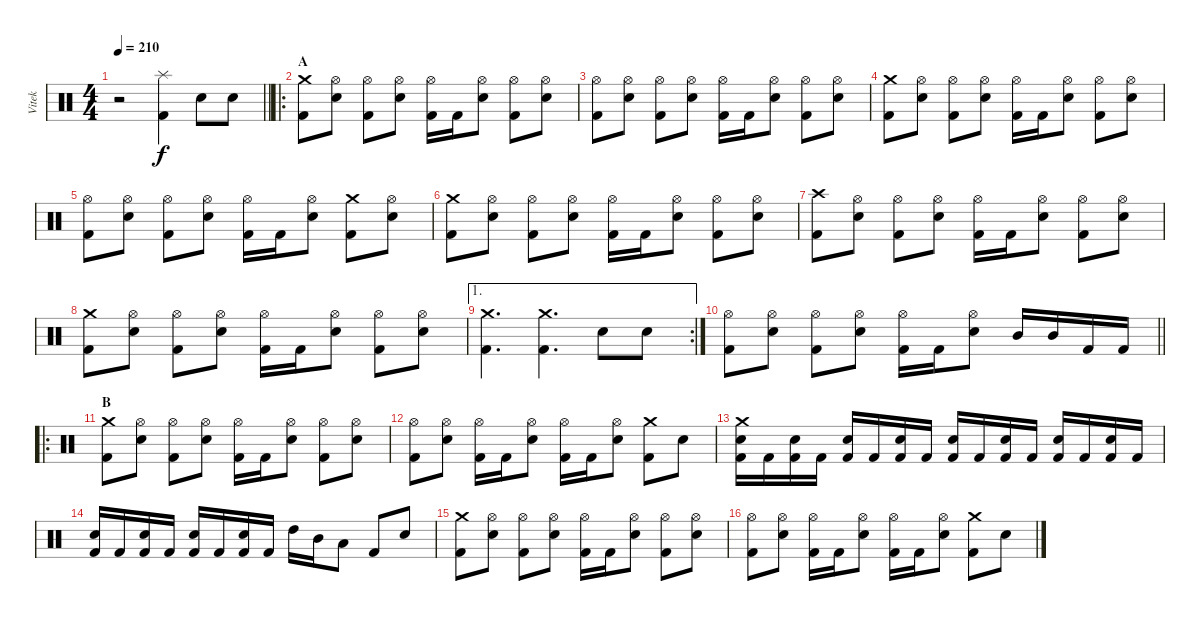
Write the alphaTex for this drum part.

\track ("Vitek" "Vitek") {instrument percussion}
\staff {score}
\articulation defaults
\ts (4 4)
\tempo 210
\clef neutral
\barLineRight lightlight
\ks c
r.2{dy f} ("Splash (hit)" "Kick (hit) 2").4 "Electric Snare (hit)".8 "Electric Snare (hit)".8 |
\ro
\section ("" "A")
("Crash medium (hit)" "Kick (hit) 2").8 ("Hi-Hat (open)" "Electric Snare (hit)").8 ("Hi-Hat (open)" "Kick (hit) 2").8 ("Hi-Hat (open)" "Electric Snare (hit)").8 ("Hi-Hat (open)" "Kick (hit) 2").16 "Kick (hit) 2".16 ("Hi-Hat (open)" "Electric Snare (hit)").8 ("Hi-Hat (open)" "Kick (hit) 2").8 ("Hi-Hat (open)" "Electric Snare (hit)").8 |
("Hi-Hat (open)" "Kick (hit) 2").8 ("Hi-Hat (open)" "Electric Snare (hit)").8 ("Hi-Hat (open)" "Kick (hit) 2").8 ("Hi-Hat (open)" "Electric Snare (hit)").8 ("Hi-Hat (open)" "Kick (hit) 2").16 "Kick (hit) 2".16 ("Hi-Hat (open)" "Electric Snare (hit)").8 ("Hi-Hat (open)" "Kick (hit) 2").8 ("Hi-Hat (open)" "Electric Snare (hit)").8 |
("Crash medium (hit)" "Kick (hit) 2").8 ("Hi-Hat (open)" "Electric Snare (hit)").8 ("Hi-Hat (open)" "Kick (hit) 2").8 ("Hi-Hat (open)" "Electric Snare (hit)").8 ("Hi-Hat (open)" "Kick (hit) 2").16 "Kick (hit) 2".16 ("Hi-Hat (open)" "Electric Snare (hit)").8 ("Hi-Hat (open)" "Kick (hit) 2").8 ("Hi-Hat (open)" "Electric Snare (hit)").8 |
("Hi-Hat (open)" "Kick (hit) 2").8 ("Hi-Hat (open)" "Electric Snare (hit)").8 ("Hi-Hat (open)" "Kick (hit) 2").8 ("Hi-Hat (open)" "Electric Snare (hit)").8 ("Hi-Hat (open)" "Kick (hit) 2").16 "Kick (hit) 2".16 ("Hi-Hat (open)" "Electric Snare (hit)").8 ("Crash medium (hit)" "Kick (hit) 2").8 ("Hi-Hat (open)" "Electric Snare (hit)").8 |
("Crash medium (hit)" "Kick (hit) 2").8 ("Hi-Hat (open)" "Electric Snare (hit)").8 ("Hi-Hat (open)" "Kick (hit) 2").8 ("Hi-Hat (open)" "Electric Snare (hit)").8 ("Hi-Hat (open)" "Kick (hit) 2").16 "Kick (hit) 2".16 ("Hi-Hat (open)" "Electric Snare (hit)").8 ("Hi-Hat (open)" "Kick (hit) 2").8 ("Hi-Hat (open)" "Electric Snare (hit)").8 |
("Crash high (hit)" "Kick (hit) 2").8 ("Hi-Hat (open)" "Electric Snare (hit)").8 ("Hi-Hat (open)" "Kick (hit) 2").8 ("Hi-Hat (open)" "Electric Snare (hit)").8 ("Hi-Hat (open)" "Kick (hit) 2").16 "Kick (hit) 2".16 ("Hi-Hat (open)" "Electric Snare (hit)").8 ("Hi-Hat (open)" "Kick (hit) 2").8 ("Hi-Hat (open)" "Electric Snare (hit)").8 |
("Crash medium (hit)" "Kick (hit) 2").8 ("Hi-Hat (open)" "Electric Snare (hit)").8 ("Hi-Hat (open)" "Kick (hit) 2").8 ("Hi-Hat (open)" "Electric Snare (hit)").8 ("Hi-Hat (open)" "Kick (hit) 2").16 "Kick (hit) 2".16 ("Hi-Hat (open)" "Electric Snare (hit)").8 ("Hi-Hat (open)" "Kick (hit) 2").8 ("Hi-Hat (open)" "Electric Snare (hit)").8 |
\ae 1
\rc 2
("Crash medium (hit)" "Kick (hit) 2").4{d} ("Crash medium (hit)" "Kick (hit) 2").4{d} "Electric Snare (hit)".8 "Electric Snare (hit)".8 |
\barLineRight lightlight
("Hi-Hat (open)" "Kick (hit) 2").8 ("Hi-Hat (open)" "Electric Snare (hit)").8 ("Hi-Hat (open)" "Kick (hit) 2").8 ("Hi-Hat (open)" "Electric Snare (hit)").8 ("Hi-Hat (open)" "Kick (hit) 2").16 "Kick (hit) 2".16 ("Hi-Hat (open)" "Electric Snare (hit)").8 "Mid Tom (hit)".16 "Mid Tom (hit)".16 "Kick (hit) 2".16 "Kick (hit) 2".16 |
\ro
\section ("" "B")
("Crash medium (hit)" "Kick (hit) 2").8 ("Hi-Hat (open)" "Electric Snare (hit)").8 ("Hi-Hat (open)" "Kick (hit) 2").8 ("Hi-Hat (open)" "Electric Snare (hit)").8 ("Hi-Hat (open)" "Kick (hit) 2").16 "Kick (hit) 2".16 ("Hi-Hat (open)" "Electric Snare (hit)").8 ("Hi-Hat (open)" "Kick (hit) 2").8 ("Hi-Hat (open)" "Electric Snare (hit)").8 |
("Hi-Hat (open)" "Kick (hit) 2").8 ("Hi-Hat (open)" "Electric Snare (hit)").8 ("Hi-Hat (open)" "Kick (hit) 2").16 "Kick (hit) 2".16 ("Hi-Hat (open)" "Electric Snare (hit)").8 ("Hi-Hat (open)" "Kick (hit) 2").16 "Kick (hit) 2".16 ("Hi-Hat (open)" "Electric Snare (hit)").8 ("Crash medium (hit)" "Kick (hit) 2").8 "Electric Snare (hit)".8 |
("Crash medium (hit)" "Electric Snare (hit)" "Kick (hit) 2").16 "Kick (hit) 2".16 ("Electric Snare (hit)" "Kick (hit) 2").16 "Kick (hit) 2".16 ("Electric Snare (hit)" "Kick (hit) 2").16 "Kick (hit) 2".16 ("Electric Snare (hit)" "Kick (hit) 2").16 "Kick (hit) 2".16 ("Electric Snare (hit)" "Kick (hit) 2").16 "Kick (hit) 2".16 ("Electric Snare (hit)" "Kick (hit) 2").16 "Kick (hit) 2".16 ("Electric Snare (hit)" "Kick (hit) 2").16 "Kick (hit) 2".16 ("Electric Snare (hit)" "Kick (hit) 2").16 "Kick (hit) 2".16 |
("Electric Snare (hit)" "Kick (hit) 2").16 "Kick (hit) 2".16 ("Electric Snare (hit)" "Kick (hit) 2").16 "Kick (hit) 2".16 ("Electric Snare (hit)" "Kick (hit) 2").16 "Kick (hit) 2".16 ("Electric Snare (hit)" "Kick (hit) 2").16 "Kick (hit) 2".16 "High Tom (hit)".16 "Mid Tom (hit)".16 "Low Tom (hit)".8 "Kick (hit) 2".8 "Electric Snare (hit)".8 |
("Crash medium (hit)" "Kick (hit) 2").8 ("Hi-Hat (open)" "Electric Snare (hit)").8 ("Hi-Hat (open)" "Kick (hit) 2").8 ("Hi-Hat (open)" "Electric Snare (hit)").8 ("Hi-Hat (open)" "Kick (hit) 2").16 "Kick (hit) 2".16 ("Hi-Hat (open)" "Electric Snare (hit)").8 ("Hi-Hat (open)" "Kick (hit) 2").8 ("Hi-Hat (open)" "Electric Snare (hit)").8 |
("Hi-Hat (open)" "Kick (hit) 2").8 ("Hi-Hat (open)" "Electric Snare (hit)").8 ("Hi-Hat (open)" "Kick (hit) 2").16 "Kick (hit) 2".16 ("Hi-Hat (open)" "Electric Snare (hit)").8 ("Hi-Hat (open)" "Kick (hit) 2").16 "Kick (hit) 2".16 ("Hi-Hat (open)" "Electric Snare (hit)").8 ("Crash medium (hit)" "Kick (hit) 2").8 "Electric Snare (hit)".8
